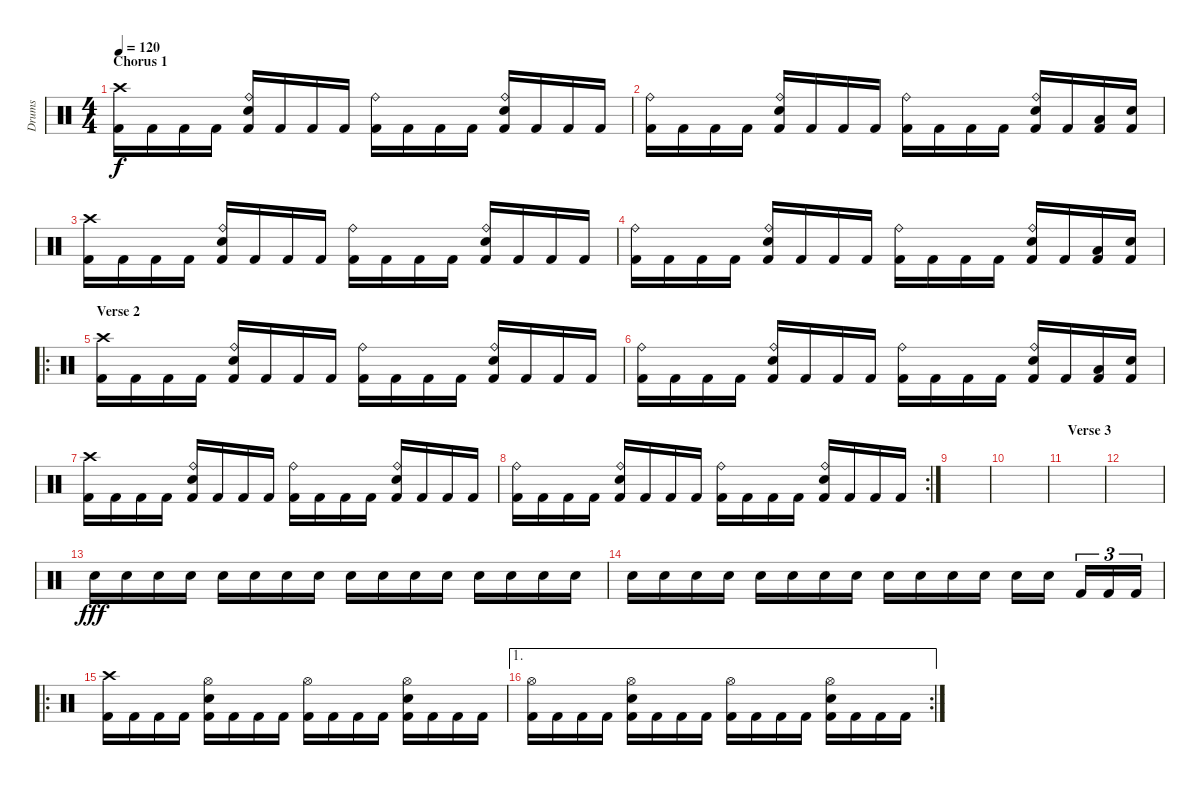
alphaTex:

\track ("Drums" "Drums") {instrument percussion}
\staff {score}
\articulation defaults
\ts (4 4)
\section ("" "Chorus 1")
\tempo 120
\clef neutral
\ks c
("Crash high (hit)" "Kick (hit) 2").16{dy f} "Kick (hit) 2".16 "Kick (hit) 2".16 "Kick (hit) 2".16 ("Ride (bell)" "Kick (hit) 2" "Electric Snare (hit)").16 "Kick (hit) 2".16 "Kick (hit) 2".16 "Kick (hit) 2".16 ("Ride (bell)" "Kick (hit) 2").16 "Kick (hit) 2".16 "Kick (hit) 2".16 "Kick (hit) 2".16 ("Ride (bell)" "Kick (hit) 2" "Electric Snare (hit)").16 "Kick (hit) 2".16 "Kick (hit) 2".16 "Kick (hit) 2".16 |
("Ride (bell)" "Kick (hit) 2").16 "Kick (hit) 2".16 "Kick (hit) 2".16 "Kick (hit) 2".16 ("Ride (bell)" "Kick (hit) 2" "Electric Snare (hit)").16 "Kick (hit) 2".16 "Kick (hit) 2".16 "Kick (hit) 2".16 ("Ride (bell)" "Kick (hit) 2").16 "Kick (hit) 2".16 "Kick (hit) 2".16 "Kick (hit) 2".16 ("Ride (bell)" "Kick (hit) 2" "Electric Snare (hit)").16 "Kick (hit) 2".16 ("Kick (hit) 2" "Low Floor Tom (hit)").16 ("Kick (hit) 2" "Electric Snare (hit)").16 |
("Crash high (hit)" "Kick (hit) 2").16 "Kick (hit) 2".16 "Kick (hit) 2".16 "Kick (hit) 2".16 ("Ride (bell)" "Kick (hit) 2" "Electric Snare (hit)").16 "Kick (hit) 2".16 "Kick (hit) 2".16 "Kick (hit) 2".16 ("Ride (bell)" "Kick (hit) 2").16 "Kick (hit) 2".16 "Kick (hit) 2".16 "Kick (hit) 2".16 ("Ride (bell)" "Kick (hit) 2" "Electric Snare (hit)").16 "Kick (hit) 2".16 "Kick (hit) 2".16 "Kick (hit) 2".16 |
("Ride (bell)" "Kick (hit) 2").16 "Kick (hit) 2".16 "Kick (hit) 2".16 "Kick (hit) 2".16 ("Ride (bell)" "Kick (hit) 2" "Electric Snare (hit)").16 "Kick (hit) 2".16 "Kick (hit) 2".16 "Kick (hit) 2".16 ("Ride (bell)" "Kick (hit) 2").16 "Kick (hit) 2".16 "Kick (hit) 2".16 "Kick (hit) 2".16 ("Ride (bell)" "Kick (hit) 2" "Electric Snare (hit)").16 "Kick (hit) 2".16 ("Kick (hit) 2" "Low Floor Tom (hit)").16 ("Kick (hit) 2" "Electric Snare (hit)").16 |
\ro
\section ("" "Verse 2")
("Crash high (hit)" "Kick (hit) 2").16 "Kick (hit) 2".16 "Kick (hit) 2".16 "Kick (hit) 2".16 ("Ride (bell)" "Kick (hit) 2" "Electric Snare (hit)").16 "Kick (hit) 2".16 "Kick (hit) 2".16 "Kick (hit) 2".16 ("Ride (bell)" "Kick (hit) 2").16 "Kick (hit) 2".16 "Kick (hit) 2".16 "Kick (hit) 2".16 ("Ride (bell)" "Kick (hit) 2" "Electric Snare (hit)").16 "Kick (hit) 2".16 "Kick (hit) 2".16 "Kick (hit) 2".16 |
("Ride (bell)" "Kick (hit) 2").16 "Kick (hit) 2".16 "Kick (hit) 2".16 "Kick (hit) 2".16 ("Ride (bell)" "Kick (hit) 2" "Electric Snare (hit)").16 "Kick (hit) 2".16 "Kick (hit) 2".16 "Kick (hit) 2".16 ("Ride (bell)" "Kick (hit) 2").16 "Kick (hit) 2".16 "Kick (hit) 2".16 "Kick (hit) 2".16 ("Ride (bell)" "Kick (hit) 2" "Electric Snare (hit)").16 "Kick (hit) 2".16 ("Kick (hit) 2" "Low Floor Tom (hit)").16 ("Kick (hit) 2" "Electric Snare (hit)").16 |
("Crash high (hit)" "Kick (hit) 2").16 "Kick (hit) 2".16 "Kick (hit) 2".16 "Kick (hit) 2".16 ("Ride (bell)" "Kick (hit) 2" "Electric Snare (hit)").16 "Kick (hit) 2".16 "Kick (hit) 2".16 "Kick (hit) 2".16 ("Ride (bell)" "Kick (hit) 2").16 "Kick (hit) 2".16 "Kick (hit) 2".16 "Kick (hit) 2".16 ("Ride (bell)" "Kick (hit) 2" "Electric Snare (hit)").16 "Kick (hit) 2".16 "Kick (hit) 2".16 "Kick (hit) 2".16 |
\rc 2
("Ride (bell)" "Kick (hit) 2").16 "Kick (hit) 2".16 "Kick (hit) 2".16 "Kick (hit) 2".16 ("Ride (bell)" "Kick (hit) 2" "Electric Snare (hit)").16 "Kick (hit) 2".16 "Kick (hit) 2".16 "Kick (hit) 2".16 ("Ride (bell)" "Kick (hit) 2").16 "Kick (hit) 2".16 "Kick (hit) 2".16 "Kick (hit) 2".16 ("Ride (bell)" "Kick (hit) 2" "Electric Snare (hit)").16 "Kick (hit) 2".16 "Kick (hit) 2".16 "Kick (hit) 2".16 |
|
|
\section ("" "Verse 3")
|
|
"Electric Snare (hit)".16{dy fff volume 8} "Electric Snare (hit)".16 "Electric Snare (hit)".16 "Electric Snare (hit)".16 "Electric Snare (hit)".16 "Electric Snare (hit)".16 "Electric Snare (hit)".16 "Electric Snare (hit)".16 "Electric Snare (hit)".16 "Electric Snare (hit)".16 "Electric Snare (hit)".16 "Electric Snare (hit)".16 "Electric Snare (hit)".16 "Electric Snare (hit)".16 "Electric Snare (hit)".16 "Electric Snare (hit)".16 |
"Electric Snare (hit)".16{volume 16} "Electric Snare (hit)".16 "Electric Snare (hit)".16 "Electric Snare (hit)".16 "Electric Snare (hit)".16 "Electric Snare (hit)".16 "Electric Snare (hit)".16 "Electric Snare (hit)".16 "Electric Snare (hit)".16 "Electric Snare (hit)".16 "Electric Snare (hit)".16 "Electric Snare (hit)".16 "Electric Snare (hit)".16 "Electric Snare (hit)".16 "Kick (hit) 2".16{tu (3 2)} "Kick (hit) 2".16{tu (3 2)} "Kick (hit) 2".16{tu (3 2)} |
\ro
("Crash high (hit)" "Kick (hit) 2").16 "Kick (hit) 2".16 "Kick (hit) 2".16 "Kick (hit) 2".16 ("Hi-Hat (open)" "Kick (hit) 2" "Electric Snare (hit)").16 "Kick (hit) 2".16 "Kick (hit) 2".16 "Kick (hit) 2".16 ("Hi-Hat (open)" "Kick (hit) 2").16 "Kick (hit) 2".16 "Kick (hit) 2".16 "Kick (hit) 2".16 ("Hi-Hat (open)" "Kick (hit) 2" "Electric Snare (hit)").16 "Kick (hit) 2".16 "Kick (hit) 2".16 "Kick (hit) 2".16 |
\ae 1
\rc 2
("Hi-Hat (open)" "Kick (hit) 2").16 "Kick (hit) 2".16 "Kick (hit) 2".16 "Kick (hit) 2".16 ("Hi-Hat (open)" "Kick (hit) 2" "Electric Snare (hit)").16 "Kick (hit) 2".16 "Kick (hit) 2".16 "Kick (hit) 2".16 ("Hi-Hat (open)" "Kick (hit) 2").16 "Kick (hit) 2".16 "Kick (hit) 2".16 "Kick (hit) 2".16 ("Hi-Hat (open)" "Kick (hit) 2" "Electric Snare (hit)").16 "Kick (hit) 2".16 "Kick (hit) 2".16 "Kick (hit) 2".16
